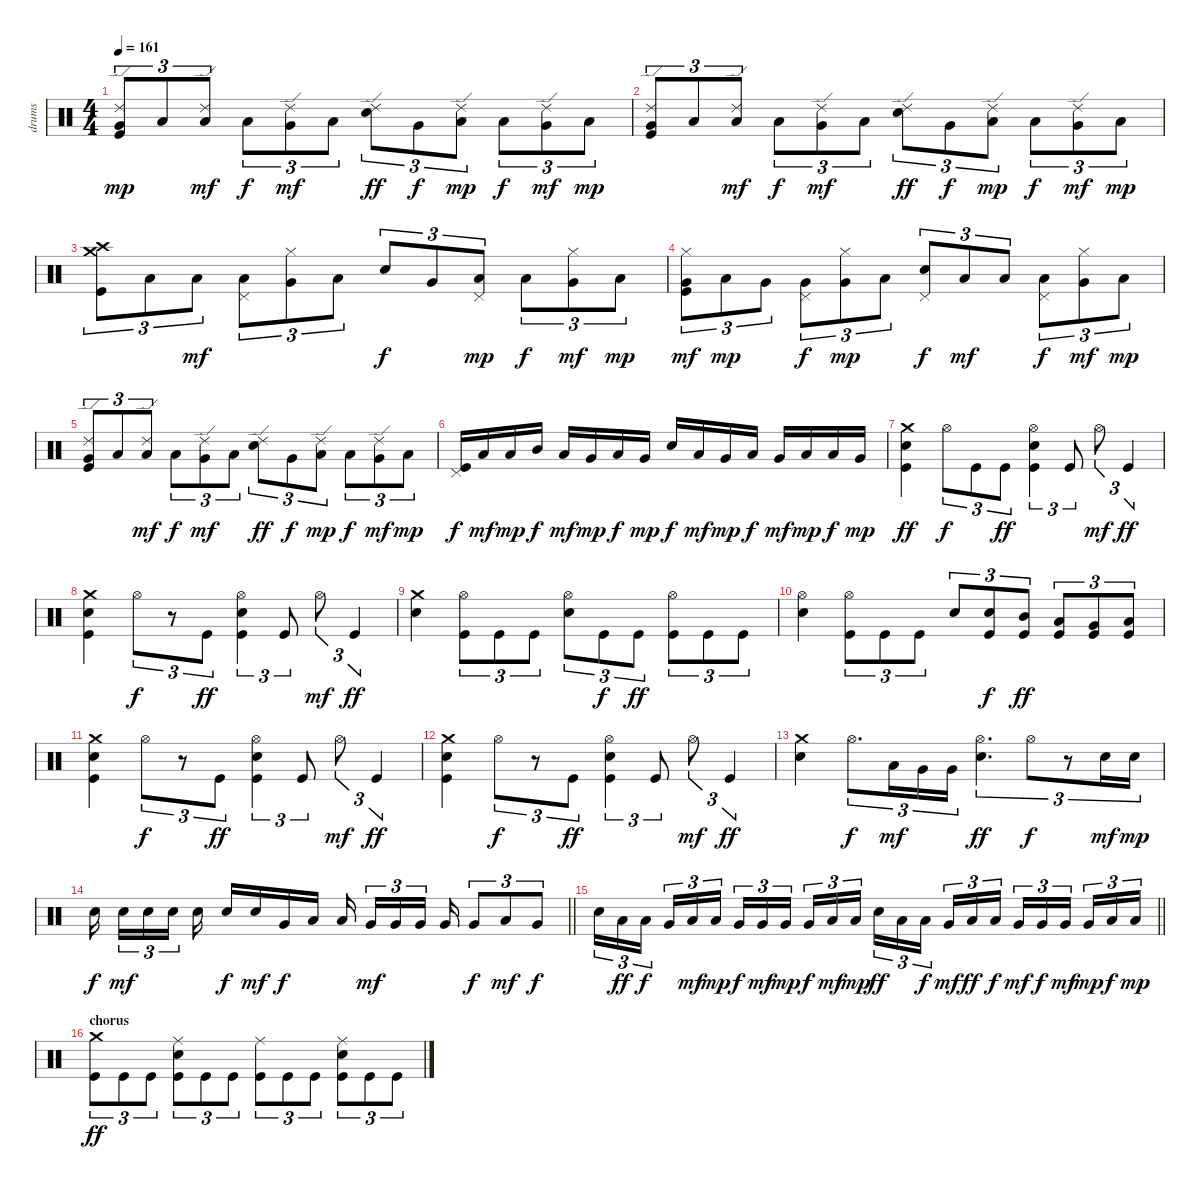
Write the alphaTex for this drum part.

\track ("drums" "drums") {instrument percussion}
\staff {score}
\articulation defaults
\ts (4 4)
\tempo 161
\clef neutral
\ks c
("Ride (edge) 2" "Very Low Tom (hit)" "Kick (hit)").8{tu (3 2) dy mp} "Low Tom (hit)".8{tu (3 2)} ("Ride (edge) 2" "Low Tom (hit)").8{tu (3 2) dy mf} "Low Tom (hit)".8{tu (3 2) dy f} ("Ride (edge) 2" "Very Low Tom (hit)").8{tu (3 2) dy mf} "Low Floor Tom (hit)".8{tu (3 2)} ("Ride (edge) 2" "Electric Snare (hit)").8{tu (3 2) dy ff} "Very Low Tom (hit)".8{tu (3 2) dy f} ("Ride (edge) 2" "Low Tom (hit)").8{tu (3 2) dy mp} "Low Tom (hit)".8{tu (3 2) dy f} ("Ride (edge) 2" "Very Low Tom (hit)").8{tu (3 2) dy mf} "Low Floor Tom (hit)".8{tu (3 2) dy mp} |
("Ride (edge) 2" "Very Low Tom (hit)" "Kick (hit)").8{tu (3 2)} "Low Tom (hit)".8{tu (3 2)} ("Ride (edge) 2" "Low Tom (hit)").8{tu (3 2) dy mf} "Low Tom (hit)".8{tu (3 2) dy f} ("Ride (edge) 2" "Very Low Tom (hit)").8{tu (3 2) dy mf} "Low Floor Tom (hit)".8{tu (3 2)} ("Ride (edge) 2" "Electric Snare (hit)").8{tu (3 2) dy ff} "Very Low Tom (hit)".8{tu (3 2) dy f} ("Ride (edge) 2" "Low Tom (hit)").8{tu (3 2) dy mp} "Low Tom (hit)".8{tu (3 2) dy f} ("Ride (edge) 2" "Very Low Tom (hit)").8{tu (3 2) dy mf} "Low Floor Tom (hit)".8{tu (3 2) dy mp} |
("Crash medium (hit)" "Crash high (hit)" "Kick (hit)").8{tu (3 2)} "Low Tom (hit)".8{tu (3 2)} "Low Tom (hit)".8{tu (3 2) dy mf} ("Pedal Hi-Hat (hit)" "Low Tom (hit)").8{tu (3 2)} ("Hi-Hat (closed)" "Very Low Tom (hit)").8{tu (3 2)} "Low Floor Tom (hit)".8{tu (3 2)} "Electric Snare (hit)".8{tu (3 2) dy f} "Very Low Tom (hit)".8{tu (3 2)} ("Pedal Hi-Hat (hit)" "Low Tom (hit)").8{tu (3 2) dy mp} "Low Tom (hit)".8{tu (3 2) dy f} ("Hi-Hat (closed)" "Very Low Tom (hit)").8{tu (3 2) dy mf} "Low Floor Tom (hit)".8{tu (3 2) dy mp} |
("Hi-Hat (closed)" "Very Low Tom (hit)" "Kick (hit)").8{tu (3 2) dy mf} "Low Tom (hit)".8{tu (3 2) dy mp} "Very Low Tom (hit)".8{tu (3 2)} ("Pedal Hi-Hat (hit)" "Very Low Tom (hit)").8{tu (3 2) dy f} ("Hi-Hat (closed)" "Very Low Tom (hit)").8{tu (3 2) dy mp} "Low Floor Tom (hit)".8{tu (3 2)} ("Pedal Hi-Hat (hit)" "Electric Snare (hit)").8{tu (3 2) dy f} "Low Floor Tom (hit)".8{tu (3 2) dy mf} "Low Tom (hit)".8{tu (3 2)} ("Pedal Hi-Hat (hit)" "Low Tom (hit)").8{tu (3 2) dy f} ("Hi-Hat (closed)" "Very Low Tom (hit)").8{tu (3 2) dy mf} "Low Floor Tom (hit)".8{tu (3 2) dy mp} |
("Ride (edge) 2" "Very Low Tom (hit)" "Kick (hit)").8{tu (3 2)} "Low Tom (hit)".8{tu (3 2)} ("Ride (edge) 2" "Low Tom (hit)").8{tu (3 2) dy mf} "Low Tom (hit)".8{tu (3 2) dy f} ("Ride (edge) 2" "Very Low Tom (hit)").8{tu (3 2) dy mf} "Low Floor Tom (hit)".8{tu (3 2)} ("Ride (edge) 2" "Electric Snare (hit)").8{tu (3 2) dy ff} "Very Low Tom (hit)".8{tu (3 2) dy f} ("Ride (edge) 2" "Low Tom (hit)").8{tu (3 2) dy mp} "Low Tom (hit)".8{tu (3 2) dy f} ("Ride (edge) 2" "Very Low Tom (hit)").8{tu (3 2) dy mf} "Low Floor Tom (hit)".8{tu (3 2) dy mp} |
("Pedal Hi-Hat (hit)" "Kick (hit)").16{dy f} "Low Tom (hit)".16{dy mf} "Low Tom (hit)".16{dy mp} "Mid Tom (hit)".16{dy f} "Low Tom (hit)".16{dy mf} "Very Low Tom (hit)".16{dy mp} "Low Tom (hit)".16{dy f} "Very Low Tom (hit)".16{dy mp} "Electric Snare (hit)".16{dy f} "Low Tom (hit)".16{dy mf} "Very Low Tom (hit)".16{dy mp} "Low Tom (hit)".16{dy f} "Very Low Tom (hit)".16{dy mf} "Low Floor Tom (hit)".16{dy mp} "Low Tom (hit)".16{dy f} "Very Low Tom (hit)".16{dy mp} |
("Crash medium (hit)" "Electric Snare (hit)" "Kick (hit)").4{dy ff} "Hi-Hat (open)".8{tu (3 2) dy f} "Kick (hit)".8{tu (3 2)} "Kick (hit)".8{tu (3 2) dy ff} ("Hi-Hat (open)" "Electric Snare (hit)" "Kick (hit)").4{tu (3 2)} "Kick (hit)".8{tu (3 2)} "Hi-Hat (open)".8{tu (3 2) dy mf} "Kick (hit)".4{tu (3 2) dy ff} |
("Crash medium (hit)" "Electric Snare (hit)" "Kick (hit)").4 "Hi-Hat (open)".8{tu (3 2) dy f} r.8{tu (3 2)} "Kick (hit)".8{tu (3 2) dy ff} ("Hi-Hat (open)" "Electric Snare (hit)" "Kick (hit)").4{tu (3 2)} "Kick (hit)".8{tu (3 2)} "Hi-Hat (open)".8{tu (3 2) dy mf} "Kick (hit)".4{tu (3 2) dy ff} |
("Crash medium (hit)" "Electric Snare (hit)").4 ("Hi-Hat (open)" "Kick (hit)").8{tu (3 2)} "Kick (hit)".8{tu (3 2)} "Kick (hit)".8{tu (3 2)} ("Hi-Hat (open)" "Electric Snare (hit)").8{tu (3 2)} "Kick (hit)".8{tu (3 2) dy f} "Kick (hit)".8{tu (3 2) dy ff} ("Hi-Hat (open)" "Kick (hit)").8{tu (3 2)} "Kick (hit)".8{tu (3 2)} "Kick (hit)".8{tu (3 2)} |
("Hi-Hat (open)" "Electric Snare (hit)").4 ("Hi-Hat (open)" "Kick (hit)").8{tu (3 2)} "Kick (hit)".8{tu (3 2)} "Kick (hit)".8{tu (3 2)} "Electric Snare (hit)".8{tu (3 2)} ("Electric Snare (hit)" "Kick (hit)").8{tu (3 2) dy f} ("Mid Tom (hit)" "Kick (hit)").8{tu (3 2) dy ff} ("Low Tom (hit)" "Kick (hit)").8{tu (3 2)} ("Very Low Tom (hit)" "Kick (hit)").8{tu (3 2)} ("Low Floor Tom (hit)" "Kick (hit)").8{tu (3 2)} |
("Crash medium (hit)" "Electric Snare (hit)" "Kick (hit)").4 "Hi-Hat (open)".8{tu (3 2) dy f} r.8{tu (3 2)} "Kick (hit)".8{tu (3 2) dy ff} ("Hi-Hat (open)" "Electric Snare (hit)" "Kick (hit)").4{tu (3 2)} "Kick (hit)".8{tu (3 2)} "Hi-Hat (open)".8{tu (3 2) dy mf} "Kick (hit)".4{tu (3 2) dy ff} |
("Crash medium (hit)" "Electric Snare (hit)" "Kick (hit)").4 "Hi-Hat (open)".8{tu (3 2) dy f} r.8{tu (3 2)} "Kick (hit)".8{tu (3 2) dy ff} ("Hi-Hat (open)" "Electric Snare (hit)" "Kick (hit)").4{tu (3 2)} "Kick (hit)".8{tu (3 2)} "Hi-Hat (open)".8{tu (3 2) dy mf} "Kick (hit)".4{tu (3 2) dy ff} |
("Crash medium (hit)" "Electric Snare (hit)").4 "Hi-Hat (open)".8{d tu (3 2) dy f} "Low Tom (hit)".16{tu (3 2) dy mf} "Very Low Tom (hit)".16{tu (3 2)} "Very Low Tom (hit)".16{tu (3 2)} ("Hi-Hat (open)" "Electric Snare (hit)").4{d tu (3 2) dy ff} "Hi-Hat (open)".8{tu (3 2) dy f} r.8{tu (3 2)} "Electric Snare (hit)".16{tu (3 2) dy mf} "Electric Snare (hit)".16{tu (3 2) dy mp} |
\barLineRight lightlight "Electric Snare (hit)".16{dy f beam splitsecondary} "Electric Snare (hit)".16{tu (3 2) dy mf} "Electric Snare (hit)".16{tu (3 2)} "Electric Snare (hit)".16{tu (3 2) beam splitsecondary} "Electric Snare (hit)".16 "Electric Snare (hit)".16{dy f} "Electric Snare (hit)".16{dy mf} "Very Low Tom (hit)".16{dy f} "Low Floor Tom (hit)".16 "Low Tom (hit)".16{beam splitsecondary} "Very Low Tom (hit)".16{tu (3 2) dy mf} "Very Low Tom (hit)".16{tu (3 2)} "Very Low Tom (hit)".16{tu (3 2) beam splitsecondary} "Very Low Tom (hit)".16 "Very Low Tom (hit)".8{tu (3 2) dy f} "Low Floor Tom (hit)".8{tu (3 2) dy mf} "Very Low Tom (hit)".8{tu (3 2) dy f}
|
\barLineRight lightlight "Electric Snare (hit)".16{tu (3 2)} "Low Tom (hit)".16{tu (3 2) dy ff} "Low Tom (hit)".16{tu (3 2) dy f beam splitsecondary} "Very Low Tom (hit)".16{tu (3 2)} "Low Tom (hit)".16{tu (3 2) dy mf} "Low Tom (hit)".16{tu (3 2) dy mp} "Very Low Tom (hit)".16{tu (3 2) dy f} "Very Low Tom (hit)".16{tu (3 2) dy mf} "Very Low Tom (hit)".16{tu (3 2) dy mp beam splitsecondary} "Very Low Tom (hit)".16{tu (3 2) dy f} "Low Floor Tom (hit)".16{tu (3 2) dy mf} "Low Floor Tom (hit)".16{tu (3 2) dy mp} "Electric Snare (hit)".16{tu (3 2) dy ff} "Low Tom (hit)".16{tu (3 2)} "Low Tom (hit)".16{tu (3 2) dy f beam splitsecondary} "Very Low Tom (hit)".16{tu (3 2) dy mf} "Low Tom (hit)".16{tu (3 2) dy ff} "Low Tom (hit)".16{tu (3 2) dy f} "Very Low Tom (hit)".16{tu (3 2) dy mf} "Very Low Tom (hit)".16{tu (3 2) dy f} "Very Low Tom (hit)".16{tu (3 2) dy mf beam splitsecondary} "Very Low Tom (hit)".16{tu (3 2) dy mp} "Low Floor Tom (hit)".16{tu (3 2) dy f} "Low Floor Tom (hit)".16{tu (3 2) dy mp}
|
\section ("" "chorus")
("Crash medium (hit)" "Kick (hit)").8{tu (3 2) dy ff} "Kick (hit)".8{tu (3 2)} "Kick (hit)".8{tu (3 2)} ("Ride (middle)" "Electric Snare (hit)" "Kick (hit)").8{tu (3 2)} "Kick (hit)".8{tu (3 2)} "Kick (hit)".8{tu (3 2)} ("Ride (middle)" "Kick (hit)").8{tu (3 2)} "Kick (hit)".8{tu (3 2)} "Kick (hit)".8{tu (3 2)} ("Ride (middle)" "Electric Snare (hit)" "Kick (hit)").8{tu (3 2)} "Kick (hit)".8{tu (3 2)} "Kick (hit)".8{tu (3 2)}
